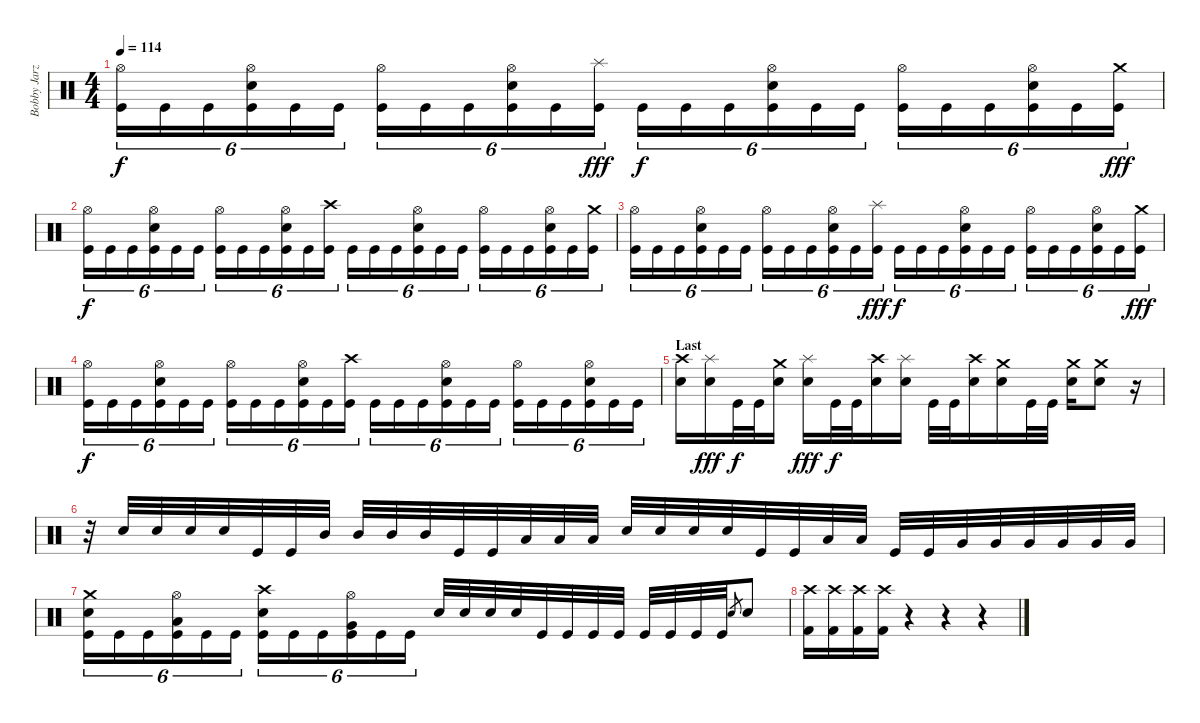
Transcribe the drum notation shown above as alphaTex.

\track ("Bobby Jarzombek" "Bobby Jarz") {instrument percussion}
\staff {score}
\articulation defaults
\ts (4 4)
\tempo 114
\clef neutral
\ks c
("Hi-Hat (open)" "Kick (hit)").16{tu (6 4) dy f} "Kick (hit)".16{tu (6 4)} "Kick (hit)".16{tu (6 4)} ("Hi-Hat (open)" "Electric Snare (hit)" "Kick (hit)").16{tu (6 4)} "Kick (hit)".16{tu (6 4)} "Kick (hit)".16{tu (6 4)} ("Hi-Hat (open)" "Kick (hit)").16{tu (6 4)} "Kick (hit)".16{tu (6 4)} "Kick (hit)".16{tu (6 4)} ("Hi-Hat (open)" "Electric Snare (hit)" "Kick (hit)").16{tu (6 4)} "Kick (hit)".16{tu (6 4)} ("Splash (hit)" "Kick (hit)").16{tu (6 4) dy fff} "Kick (hit)".16{tu (6 4) dy f} "Kick (hit)".16{tu (6 4)} "Kick (hit)".16{tu (6 4)} ("Hi-Hat (open)" "Electric Snare (hit)" "Kick (hit)").16{tu (6 4)} "Kick (hit)".16{tu (6 4)} "Kick (hit)".16{tu (6 4)} ("Hi-Hat (open)" "Kick (hit)").16{tu (6 4)} "Kick (hit)".16{tu (6 4)} "Kick (hit)".16{tu (6 4)} ("Hi-Hat (open)" "Electric Snare (hit)" "Kick (hit)").16{tu (6 4)} "Kick (hit)".16{tu (6 4)} ("Crash medium (hit)" "Kick (hit)").16{tu (6 4) dy fff} |
("Hi-Hat (open)" "Kick (hit)").16{tu (6 4) dy f} "Kick (hit)".16{tu (6 4)} "Kick (hit)".16{tu (6 4)} ("Hi-Hat (open)" "Electric Snare (hit)" "Kick (hit)").16{tu (6 4)} "Kick (hit)".16{tu (6 4)} "Kick (hit)".16{tu (6 4)} ("Hi-Hat (open)" "Kick (hit)").16{tu (6 4)} "Kick (hit)".16{tu (6 4)} "Kick (hit)".16{tu (6 4)} ("Hi-Hat (open)" "Electric Snare (hit)" "Kick (hit)").16{tu (6 4)} "Kick (hit)".16{tu (6 4)} ("Crash high (hit)" "Kick (hit)").16{tu (6 4)} "Kick (hit)".16{tu (6 4)} "Kick (hit)".16{tu (6 4)} "Kick (hit)".16{tu (6 4)} ("Hi-Hat (open)" "Electric Snare (hit)" "Kick (hit)").16{tu (6 4)} "Kick (hit)".16{tu (6 4)} "Kick (hit)".16{tu (6 4)} ("Hi-Hat (open)" "Kick (hit)").16{tu (6 4)} "Kick (hit)".16{tu (6 4)} "Kick (hit)".16{tu (6 4)} ("Hi-Hat (open)" "Electric Snare (hit)" "Kick (hit)").16{tu (6 4)} "Kick (hit)".16{tu (6 4)} ("Crash medium (hit)" "Kick (hit)").16{tu (6 4)} |
("Hi-Hat (open)" "Kick (hit)").16{tu (6 4)} "Kick (hit)".16{tu (6 4)} "Kick (hit)".16{tu (6 4)} ("Hi-Hat (open)" "Electric Snare (hit)" "Kick (hit)").16{tu (6 4)} "Kick (hit)".16{tu (6 4)} "Kick (hit)".16{tu (6 4)} ("Hi-Hat (open)" "Kick (hit)").16{tu (6 4)} "Kick (hit)".16{tu (6 4)} "Kick (hit)".16{tu (6 4)} ("Hi-Hat (open)" "Electric Snare (hit)" "Kick (hit)").16{tu (6 4)} "Kick (hit)".16{tu (6 4)} ("Splash (hit)" "Kick (hit)").16{tu (6 4) dy fff} "Kick (hit)".16{tu (6 4) dy f} "Kick (hit)".16{tu (6 4)} "Kick (hit)".16{tu (6 4)} ("Hi-Hat (open)" "Electric Snare (hit)" "Kick (hit)").16{tu (6 4)} "Kick (hit)".16{tu (6 4)} "Kick (hit)".16{tu (6 4)} ("Hi-Hat (open)" "Kick (hit)").16{tu (6 4)} "Kick (hit)".16{tu (6 4)} "Kick (hit)".16{tu (6 4)} ("Hi-Hat (open)" "Electric Snare (hit)" "Kick (hit)").16{tu (6 4)} "Kick (hit)".16{tu (6 4)} ("Crash medium (hit)" "Kick (hit)").16{tu (6 4) dy fff} |
("Hi-Hat (open)" "Kick (hit)").16{tu (6 4) dy f} "Kick (hit)".16{tu (6 4)} "Kick (hit)".16{tu (6 4)} ("Hi-Hat (open)" "Electric Snare (hit)" "Kick (hit)").16{tu (6 4)} "Kick (hit)".16{tu (6 4)} "Kick (hit)".16{tu (6 4)} ("Hi-Hat (open)" "Kick (hit)").16{tu (6 4)} "Kick (hit)".16{tu (6 4)} "Kick (hit)".16{tu (6 4)} ("Hi-Hat (open)" "Electric Snare (hit)" "Kick (hit)").16{tu (6 4)} "Kick (hit)".16{tu (6 4)} ("Crash high (hit)" "Kick (hit)").16{tu (6 4)} "Kick (hit)".16{tu (6 4)} "Kick (hit)".16{tu (6 4)} "Kick (hit)".16{tu (6 4)} ("Hi-Hat (open)" "Electric Snare (hit)" "Kick (hit)").16{tu (6 4)} "Kick (hit)".16{tu (6 4)} "Kick (hit)".16{tu (6 4)} ("Hi-Hat (open)" "Kick (hit)").16{tu (6 4)} "Kick (hit)".16{tu (6 4)} "Kick (hit)".16{tu (6 4)} ("Hi-Hat (open)" "Electric Snare (hit)" "Kick (hit)").16{tu (6 4)} "Kick (hit)".16{tu (6 4)} "Kick (hit)".16{tu (6 4)} |
\section ("" "Last ")
("Crash high (hit)" "Electric Snare (hit)").16 ("Splash (hit)" "Electric Snare (hit)").16{dy fff} "Kick (hit)".32{dy f} "Kick (hit)".32 ("Crash medium (hit)" "Electric Snare (hit)").16 ("Splash (hit)" "Electric Snare (hit)").16{dy fff} "Kick (hit)".32{dy f} "Kick (hit)".32 ("Crash high (hit)" "Electric Snare (hit)").16 ("Splash (hit)" "Electric Snare (hit)").16 "Kick (hit)".32 "Kick (hit)".32 ("Crash high (hit)" "Electric Snare (hit)").16 ("Crash medium (hit)" "Electric Snare (hit)").16 "Kick (hit)".32 "Kick (hit)".32 ("Crash medium (hit)" "Electric Snare (hit)").16 ("Crash medium (hit)" "Electric Snare (hit)").8 r.16 |
r.32 "Electric Snare (hit)".32 "Electric Snare (hit)".32 "Electric Snare (hit)".32 "Electric Snare (hit)".32 "Kick (hit)".32 "Kick (hit)".32 "Mid Tom (hit)".32 "Mid Tom (hit)".32 "Mid Tom (hit)".32 "Mid Tom (hit)".32 "Kick (hit)".32 "Kick (hit)".32 "Low Tom (hit)".32 "Low Tom (hit)".32 "Low Tom (hit)".32 "Electric Snare (hit)".32 "Electric Snare (hit)".32 "Electric Snare (hit)".32 "Electric Snare (hit)".32 "Kick (hit)".32 "Kick (hit)".32 "Low Tom (hit)".32 "Low Tom (hit)".32 "Kick (hit)".32 "Kick (hit)".32 "Very Low Tom (hit)".32 "Very Low Tom (hit)".32 "Very Low Tom (hit)".32 "Very Low Tom (hit)".32 "Very Low Tom (hit)".32 "Very Low Tom (hit)".32 |
("Crash medium (hit)" "Electric Snare (hit)" "Kick (hit)").16{tu (6 4)} "Kick (hit)".16{tu (6 4)} "Kick (hit)".16{tu (6 4)} ("Hi-Hat (open)" "Low Tom (hit)" "Kick (hit)").16{tu (6 4)} "Kick (hit)".16{tu (6 4)} "Kick (hit)".16{tu (6 4)} ("Crash high (hit)" "Electric Snare (hit)" "Kick (hit)").16{tu (6 4)} "Kick (hit)".16{tu (6 4)} "Kick (hit)".16{tu (6 4)} ("Hi-Hat (open)" "Very Low Tom (hit)" "Kick (hit)").16{tu (6 4)} "Kick (hit)".16{tu (6 4)} "Kick (hit)".16{tu (6 4)} "Electric Snare (hit)".32 "Electric Snare (hit)".32 "Electric Snare (hit)".32 "Electric Snare (hit)".32 "Kick (hit)".32 "Kick (hit)".32 "Kick (hit)".32 "Kick (hit)".32 "Kick (hit)".32 "Kick (hit)".32 "Kick (hit)".32 "Kick (hit)".32 "Electric Snare (hit)".8{gr} "Electric Snare (hit)".8 |
("Kick (hit) 2" "Crash high (hit)").16 ("Kick (hit) 2" "Crash high (hit)").16 ("Kick (hit) 2" "Crash high (hit)").16 ("Kick (hit) 2" "Crash high (hit)").16 r.4 r.4 r.4
